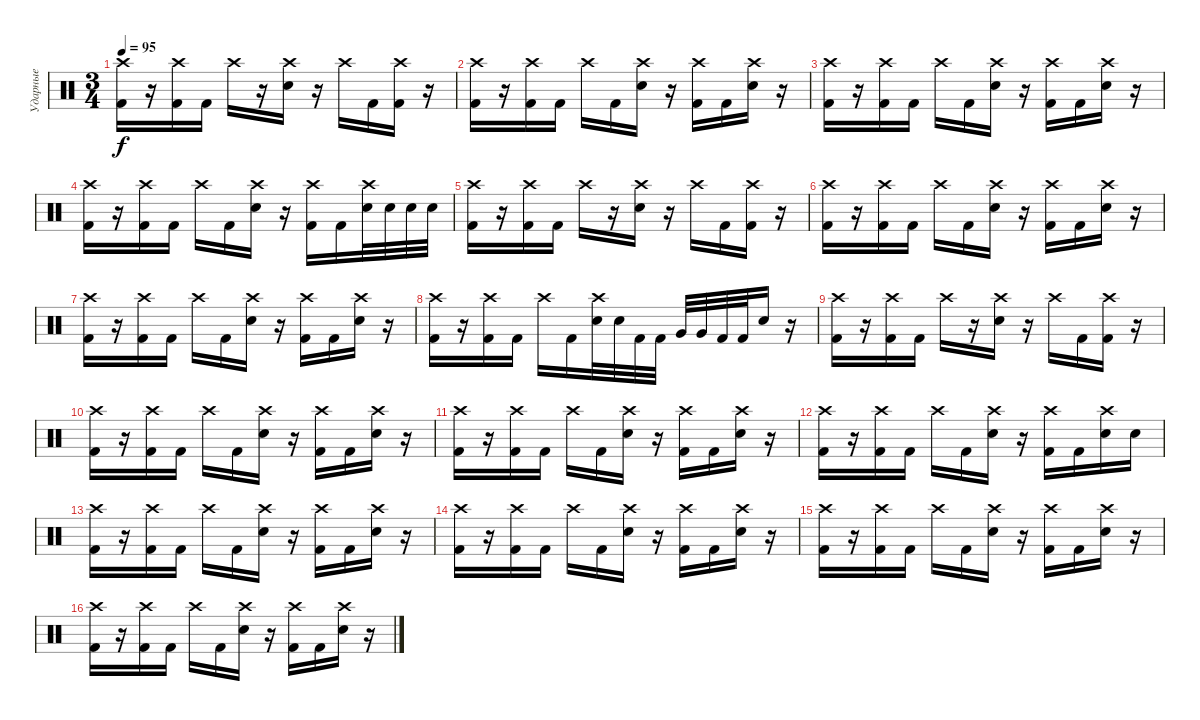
\track ("Ударные" "Ударные") {instrument percussion}
\staff {score}
\articulation defaults
\ts (3 4)
\tempo 95
\clef neutral
\ks c
("Crash high (hit)" "Kick (hit) 2").16{dy f} r.16 ("Crash high (hit)" "Kick (hit) 2").16 "Kick (hit) 2".16 "Crash high (hit)".16 r.16 ("Crash high (hit)" "Electric Snare (hit)").16 r.16 "Crash high (hit)".16 "Kick (hit) 2".16 ("Crash high (hit)" "Kick (hit) 2").16 r.16 |
("Crash high (hit)" "Kick (hit) 2").16 r.16 ("Crash high (hit)" "Kick (hit) 2").16 "Kick (hit) 2".16 "Crash high (hit)".16 "Kick (hit) 2".16 ("Crash high (hit)" "Electric Snare (hit)").16 r.16 ("Crash high (hit)" "Kick (hit) 2").16 "Kick (hit) 2".16 ("Crash high (hit)" "Electric Snare (hit)").16 r.16 |
("Crash high (hit)" "Kick (hit) 2").16 r.16 ("Crash high (hit)" "Kick (hit) 2").16 "Kick (hit) 2".16 "Crash high (hit)".16 "Kick (hit) 2".16 ("Crash high (hit)" "Electric Snare (hit)").16 r.16 ("Crash high (hit)" "Kick (hit) 2").16 "Kick (hit) 2".16 ("Crash high (hit)" "Electric Snare (hit)").16 r.16 |
("Crash high (hit)" "Kick (hit) 2").16 r.16 ("Crash high (hit)" "Kick (hit) 2").16 "Kick (hit) 2".16 "Crash high (hit)".16 "Kick (hit) 2".16 ("Crash high (hit)" "Electric Snare (hit)").16 r.16 ("Crash high (hit)" "Kick (hit) 2").16 "Kick (hit) 2".16 ("Crash high (hit)" "Electric Snare (hit)").32 "Electric Snare (hit)".32 "Electric Snare (hit)".32 "Electric Snare (hit)".32 |
("Crash high (hit)" "Kick (hit) 2").16 r.16 ("Crash high (hit)" "Kick (hit) 2").16 "Kick (hit) 2".16 "Crash high (hit)".16 r.16 ("Crash high (hit)" "Electric Snare (hit)").16 r.16 "Crash high (hit)".16 "Kick (hit) 2".16 ("Crash high (hit)" "Kick (hit) 2").16 r.16 |
("Crash high (hit)" "Kick (hit) 2").16 r.16 ("Crash high (hit)" "Kick (hit) 2").16 "Kick (hit) 2".16 "Crash high (hit)".16 "Kick (hit) 2".16 ("Crash high (hit)" "Electric Snare (hit)").16 r.16 ("Crash high (hit)" "Kick (hit) 2").16 "Kick (hit) 2".16 ("Crash high (hit)" "Electric Snare (hit)").16 r.16 |
("Crash high (hit)" "Kick (hit) 2").16 r.16 ("Crash high (hit)" "Kick (hit) 2").16 "Kick (hit) 2".16 "Crash high (hit)".16 "Kick (hit) 2".16 ("Crash high (hit)" "Electric Snare (hit)").16 r.16 ("Crash high (hit)" "Kick (hit) 2").16 "Kick (hit) 2".16 ("Crash high (hit)" "Electric Snare (hit)").16 r.16 |
("Crash high (hit)" "Kick (hit) 2").16 r.16 ("Crash high (hit)" "Kick (hit) 2").16 "Kick (hit) 2".16 "Crash high (hit)".16 "Kick (hit) 2".16 ("Crash high (hit)" "Electric Snare (hit)").32 "Electric Snare (hit)".32 "Kick (hit) 2".32 "Kick (hit) 2".32 "Very Low Tom (hit)".32 "Very Low Tom (hit)".32 "Kick (hit) 2".32 "Kick (hit) 2".32 "Electric Snare (hit)".16 r.16 |
("Crash high (hit)" "Kick (hit) 2").16 r.16 ("Crash high (hit)" "Kick (hit) 2").16 "Kick (hit) 2".16 "Crash high (hit)".16 r.16 ("Crash high (hit)" "Electric Snare (hit)").16 r.16 "Crash high (hit)".16 "Kick (hit) 2".16 ("Crash high (hit)" "Kick (hit) 2").16 r.16 |
("Crash high (hit)" "Kick (hit) 2").16 r.16 ("Crash high (hit)" "Kick (hit) 2").16 "Kick (hit) 2".16 "Crash high (hit)".16 "Kick (hit) 2".16 ("Crash high (hit)" "Electric Snare (hit)").16 r.16 ("Crash high (hit)" "Kick (hit) 2").16 "Kick (hit) 2".16 ("Crash high (hit)" "Electric Snare (hit)").16 r.16 |
("Crash high (hit)" "Kick (hit) 2").16 r.16 ("Crash high (hit)" "Kick (hit) 2").16 "Kick (hit) 2".16 "Crash high (hit)".16 "Kick (hit) 2".16 ("Crash high (hit)" "Electric Snare (hit)").16 r.16 ("Crash high (hit)" "Kick (hit) 2").16 "Kick (hit) 2".16 ("Crash high (hit)" "Electric Snare (hit)").16 r.16 |
("Crash high (hit)" "Kick (hit) 2").16 r.16 ("Crash high (hit)" "Kick (hit) 2").16 "Kick (hit) 2".16 "Crash high (hit)".16 "Kick (hit) 2".16 ("Crash high (hit)" "Electric Snare (hit)").16 r.16 ("Crash high (hit)" "Kick (hit) 2").16 "Kick (hit) 2".16 ("Crash high (hit)" "Electric Snare (hit)").16 "Electric Snare (hit)".16 |
("Crash high (hit)" "Kick (hit) 2").16 r.16 ("Crash high (hit)" "Kick (hit) 2").16 "Kick (hit) 2".16 "Crash high (hit)".16 "Kick (hit) 2".16 ("Crash high (hit)" "Electric Snare (hit)").16 r.16 ("Crash high (hit)" "Kick (hit) 2").16 "Kick (hit) 2".16 ("Crash high (hit)" "Electric Snare (hit)").16 r.16 |
("Crash high (hit)" "Kick (hit) 2").16 r.16 ("Crash high (hit)" "Kick (hit) 2").16 "Kick (hit) 2".16 "Crash high (hit)".16 "Kick (hit) 2".16 ("Crash high (hit)" "Electric Snare (hit)").16 r.16 ("Crash high (hit)" "Kick (hit) 2").16 "Kick (hit) 2".16 ("Crash high (hit)" "Electric Snare (hit)").16 r.16 |
("Crash high (hit)" "Kick (hit) 2").16 r.16 ("Crash high (hit)" "Kick (hit) 2").16 "Kick (hit) 2".16 "Crash high (hit)".16 "Kick (hit) 2".16 ("Crash high (hit)" "Electric Snare (hit)").16 r.16 ("Crash high (hit)" "Kick (hit) 2").16 "Kick (hit) 2".16 ("Crash high (hit)" "Electric Snare (hit)").16 r.16 |
("Crash high (hit)" "Kick (hit) 2").16 r.16 ("Crash high (hit)" "Kick (hit) 2").16 "Kick (hit) 2".16 "Crash high (hit)".16 "Kick (hit) 2".16 ("Crash high (hit)" "Electric Snare (hit)").16 r.16 ("Crash high (hit)" "Kick (hit) 2").16 "Kick (hit) 2".16 ("Crash high (hit)" "Electric Snare (hit)").16 r.16
